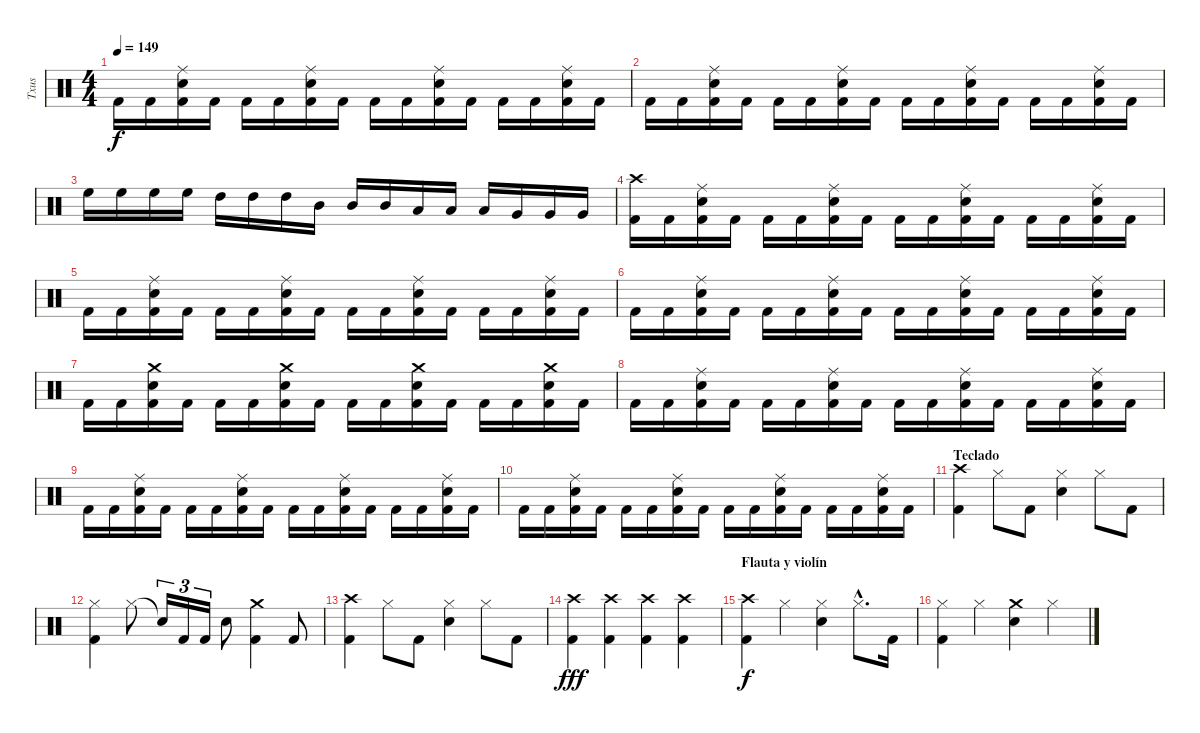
\track ("Txus" "Txus") {instrument percussion}
\staff {score}
\articulation defaults
\ts (4 4)
\tempo 149
\clef neutral
\ks c "Kick (hit) 2".16{dy f} "Kick (hit) 2".16
("Kick (hit) 2" "Electric Snare (hit)" "Ride (middle)").16 "Kick (hit) 2".16 "Kick (hit) 2".16 "Kick (hit) 2".16 ("Kick (hit) 2" "Electric Snare (hit)" "Ride (middle)").16 "Kick (hit) 2".16 "Kick (hit) 2".16 "Kick (hit) 2".16 ("Kick (hit) 2" "Electric Snare (hit)" "Ride (middle)").16 "Kick (hit) 2".16 "Kick (hit) 2".16 "Kick (hit) 2".16 ("Kick (hit) 2" "Electric Snare (hit)" "Ride (middle)").16 "Kick (hit) 2".16 |
"Kick (hit) 2".16 "Kick (hit) 2".16 ("Kick (hit) 2" "Electric Snare (hit)" "Ride (middle)").16 "Kick (hit) 2".16 "Kick (hit) 2".16 "Kick (hit) 2".16 ("Kick (hit) 2" "Electric Snare (hit)" "Ride (middle)").16 "Kick (hit) 2".16 "Kick (hit) 2".16 "Kick (hit) 2".16 ("Kick (hit) 2" "Electric Snare (hit)" "Ride (middle)").16 "Kick (hit) 2".16 "Kick (hit) 2".16 "Kick (hit) 2".16 ("Kick (hit) 2" "Electric Snare (hit)" "Ride (middle)").16 "Kick (hit) 2".16 |
"High Floor Tom (hit)".16 "High Floor Tom (hit)".16 "High Floor Tom (hit)".16 "High Floor Tom (hit)".16 "High Tom (hit)".16 "High Tom (hit)".16 "High Tom (hit)".16 "Mid Tom (hit)".16 "Mid Tom (hit)".16 "Mid Tom (hit)".16 "Low Tom (hit)".16 "Low Tom (hit)".16 "Low Tom (hit)".16 "Very Low Tom (hit)".16 "Very Low Tom (hit)".16 "Very Low Tom (hit)".16 |
("Kick (hit) 2" "Crash high (hit)").16 "Kick (hit) 2".16 ("Kick (hit) 2" "Electric Snare (hit)" "Ride (middle)").16 "Kick (hit) 2".16 "Kick (hit) 2".16 "Kick (hit) 2".16 ("Kick (hit) 2" "Electric Snare (hit)" "Ride (middle)").16 "Kick (hit) 2".16 "Kick (hit) 2".16 "Kick (hit) 2".16 ("Kick (hit) 2" "Electric Snare (hit)" "Ride (middle)").16 "Kick (hit) 2".16 "Kick (hit) 2".16 "Kick (hit) 2".16 ("Kick (hit) 2" "Electric Snare (hit)" "Ride (middle)").16 "Kick (hit) 2".16 |
"Kick (hit) 2".16 "Kick (hit) 2".16 ("Kick (hit) 2" "Electric Snare (hit)" "Ride (middle)").16 "Kick (hit) 2".16 "Kick (hit) 2".16 "Kick (hit) 2".16 ("Kick (hit) 2" "Electric Snare (hit)" "Ride (middle)").16 "Kick (hit) 2".16 "Kick (hit) 2".16 "Kick (hit) 2".16 ("Kick (hit) 2" "Electric Snare (hit)" "Ride (middle)").16 "Kick (hit) 2".16 "Kick (hit) 2".16 "Kick (hit) 2".16 ("Kick (hit) 2" "Electric Snare (hit)" "Ride (middle)").16 "Kick (hit) 2".16 |
"Kick (hit) 2".16 "Kick (hit) 2".16 ("Kick (hit) 2" "Electric Snare (hit)" "Ride (middle)").16 "Kick (hit) 2".16 "Kick (hit) 2".16 "Kick (hit) 2".16 ("Kick (hit) 2" "Electric Snare (hit)" "Ride (middle)").16 "Kick (hit) 2".16 "Kick (hit) 2".16 "Kick (hit) 2".16 ("Kick (hit) 2" "Electric Snare (hit)" "Ride (middle)").16 "Kick (hit) 2".16 "Kick (hit) 2".16 "Kick (hit) 2".16 ("Kick (hit) 2" "Electric Snare (hit)" "Ride (middle)").16 "Kick (hit) 2".16 |
"Kick (hit) 2".16 "Kick (hit) 2".16 ("Kick (hit) 2" "Electric Snare (hit)" "Crash medium (hit)").16 "Kick (hit) 2".16 "Kick (hit) 2".16 "Kick (hit) 2".16 ("Kick (hit) 2" "Electric Snare (hit)" "Crash medium (hit)").16 "Kick (hit) 2".16 "Kick (hit) 2".16 "Kick (hit) 2".16 ("Kick (hit) 2" "Electric Snare (hit)" "Crash medium (hit)").16 "Kick (hit) 2".16 "Kick (hit) 2".16 "Kick (hit) 2".16 ("Kick (hit) 2" "Electric Snare (hit)" "Crash medium (hit)").16 "Kick (hit) 2".16 |
"Kick (hit) 2".16 "Kick (hit) 2".16 ("Kick (hit) 2" "Electric Snare (hit)" "Ride (middle)").16 "Kick (hit) 2".16 "Kick (hit) 2".16 "Kick (hit) 2".16 ("Kick (hit) 2" "Electric Snare (hit)" "Ride (middle)").16 "Kick (hit) 2".16 "Kick (hit) 2".16 "Kick (hit) 2".16 ("Kick (hit) 2" "Electric Snare (hit)" "Ride (middle)").16 "Kick (hit) 2".16 "Kick (hit) 2".16 "Kick (hit) 2".16 ("Kick (hit) 2" "Electric Snare (hit)" "Ride (middle)").16 "Kick (hit) 2".16 |
"Kick (hit) 2".16 "Kick (hit) 2".16 ("Kick (hit) 2" "Electric Snare (hit)" "Ride (middle)").16 "Kick (hit) 2".16 "Kick (hit) 2".16 "Kick (hit) 2".16 ("Kick (hit) 2" "Electric Snare (hit)" "Ride (middle)").16 "Kick (hit) 2".16 "Kick (hit) 2".16 "Kick (hit) 2".16 ("Kick (hit) 2" "Electric Snare (hit)" "Ride (middle)").16 "Kick (hit) 2".16 "Kick (hit) 2".16 "Kick (hit) 2".16 ("Kick (hit) 2" "Electric Snare (hit)" "Ride (middle)").16 "Kick (hit) 2".16 |
"Kick (hit) 2".16 "Kick (hit) 2".16 ("Kick (hit) 2" "Electric Snare (hit)" "Ride (middle)").16 "Kick (hit) 2".16 "Kick (hit) 2".16 "Kick (hit) 2".16 ("Kick (hit) 2" "Electric Snare (hit)" "Ride (middle)").16 "Kick (hit) 2".16 "Kick (hit) 2".16 "Kick (hit) 2".16 ("Kick (hit) 2" "Electric Snare (hit)" "Ride (middle)").16 "Kick (hit) 2".16 "Kick (hit) 2".16 "Kick (hit) 2".16 ("Kick (hit) 2" "Electric Snare (hit)" "Ride (middle)").16 "Kick (hit) 2".16 |
\section ("" "Teclado")
("Kick (hit) 2" "Crash high (hit)").4 "Hi-Hat (closed)".8 "Kick (hit) 2".8 ("Electric Snare (hit)" "Hi-Hat (closed)").4 "Hi-Hat (closed)".8 "Kick (hit) 2".8 |
("Kick (hit) 2" "Hi-Hat (closed)").4 "Hi-Hat (closed)".8 "Snare (hit)"{t}.16{tu (3 2)} "Kick (hit) 2".16{tu (3 2)} "Kick (hit) 2".16{tu (3 2)} "Electric Snare (hit)".8 ("Kick (hit) 2" "Crash medium (hit)").4 "Kick (hit) 2".8 |
("Kick (hit) 2" "Crash high (hit)").4 "Hi-Hat (closed)".8 "Kick (hit) 2".8 ("Electric Snare (hit)" "Hi-Hat (closed)").4 "Hi-Hat (closed)".8 "Kick (hit) 2".8 |
("Kick (hit) 2" "Crash high (hit)").4{dy fff} ("Kick (hit) 2" "Crash high (hit)").4 ("Kick (hit) 2" "Crash high (hit)").4 ("Kick (hit) 2" "Crash high (hit)").4 |
\section ("" "Flauta y violín")
("Kick (hit) 2" "Crash high (hit)").4{dy f} "Hi-Hat (closed)".4 ("Electric Snare (hit)" "Hi-Hat (closed)").4 "Hi-Hat (closed)"{hac}.8{d} "Kick (hit) 2".16 |
("Kick (hit) 2" "Hi-Hat (closed)").4 "Hi-Hat (closed)".4 ("Electric Snare (hit)" "Crash medium (hit)").4 "Hi-Hat (closed)".4
